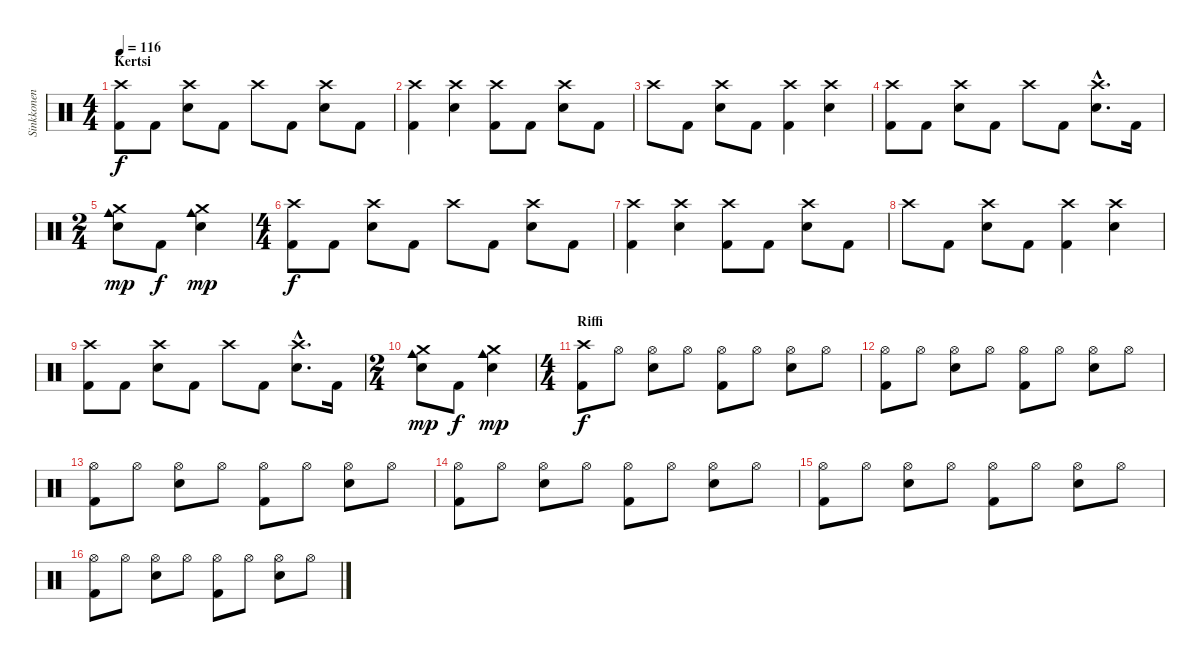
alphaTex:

\track ("Sinkkonen" "Sinkkonen") {instrument percussion}
\staff {score}
\articulation defaults
\ts (4 4)
\section ("" "Kertsi")
\tempo 116
\clef neutral
\ks c
("Kick (hit) 2" "Crash high (hit)").8{dy f} "Kick (hit) 2".8 ("Crash high (hit)" "Snare (hit) 2").8 "Kick (hit) 2".8 "Crash high (hit)".8 "Kick (hit) 2".8 ("Crash high (hit)" "Snare (hit) 2").8 "Kick (hit) 2".8 |
("Kick (hit) 2" "Crash high (hit)").4 ("Crash high (hit)" "Snare (hit) 2").4 ("Kick (hit) 2" "Crash high (hit)").8 "Kick (hit) 2".8 ("Crash high (hit)" "Snare (hit) 2").8 "Kick (hit) 2".8 |
"Crash high (hit)".8 "Kick (hit) 2".8 ("Crash high (hit)" "Snare (hit) 2").8 "Kick (hit) 2".8 ("Kick (hit) 2" "Crash high (hit)").4 ("Crash high (hit)" "Snare (hit) 2").4 |
("Kick (hit) 2" "Crash high (hit)").8 "Kick (hit) 2".8 ("Crash high (hit)" "Snare (hit) 2").8 "Kick (hit) 2".8 "Crash high (hit)".8 "Kick (hit) 2".8 ("Crash high (hit)"{hac} "Snare (hit) 2"{hac}).8{d} "Kick (hit) 2".16 |
\ts (2 4)
("Crash medium (hit)" "Snare (hit) 2" "Cowbell medium (hit)").8{dy mp} "Kick (hit) 2".8{dy f} ("Crash medium (hit)" "Snare (hit) 2" "Cowbell medium (hit)").4{dy mp} |
\ts (4 4)
("Kick (hit) 2" "Crash high (hit)").8{dy f} "Kick (hit) 2".8 ("Crash high (hit)" "Snare (hit) 2").8 "Kick (hit) 2".8 "Crash high (hit)".8 "Kick (hit) 2".8 ("Crash high (hit)" "Snare (hit) 2").8 "Kick (hit) 2".8 |
("Kick (hit) 2" "Crash high (hit)").4 ("Crash high (hit)" "Snare (hit) 2").4 ("Kick (hit) 2" "Crash high (hit)").8 "Kick (hit) 2".8 ("Crash high (hit)" "Snare (hit) 2").8 "Kick (hit) 2".8 |
"Crash high (hit)".8 "Kick (hit) 2".8 ("Crash high (hit)" "Snare (hit) 2").8 "Kick (hit) 2".8 ("Kick (hit) 2" "Crash high (hit)").4 ("Crash high (hit)" "Snare (hit) 2").4 |
("Kick (hit) 2" "Crash high (hit)").8 "Kick (hit) 2".8 ("Crash high (hit)" "Snare (hit) 2").8 "Kick (hit) 2".8 "Crash high (hit)".8 "Kick (hit) 2".8 ("Crash high (hit)"{hac} "Snare (hit) 2"{hac}).8{d} "Kick (hit) 2".16 |
\ts (2 4)
("Crash medium (hit)" "Snare (hit) 2" "Cowbell medium (hit)").8{dy mp} "Kick (hit) 2".8{dy f} ("Crash medium (hit)" "Snare (hit) 2" "Cowbell medium (hit)").4{dy mp} |
\ts (4 4)
\section ("" "Riffi")
("Kick (hit) 2" "Crash high (hit)").8{dy f} "Hi-Hat (open)".8 ("Hi-Hat (open)" "Snare (hit) 2").8 "Hi-Hat (open)".8 ("Kick (hit) 2" "Hi-Hat (open)").8 "Hi-Hat (open)".8 ("Hi-Hat (open)" "Snare (hit) 2").8 "Hi-Hat (open)".8 |
("Kick (hit) 2" "Hi-Hat (open)").8 "Hi-Hat (open)".8 ("Hi-Hat (open)" "Snare (hit) 2").8 "Hi-Hat (open)".8 ("Kick (hit) 2" "Hi-Hat (open)").8 "Hi-Hat (open)".8 ("Hi-Hat (open)" "Snare (hit) 2").8 "Hi-Hat (open)".8 |
("Kick (hit) 2" "Hi-Hat (open)").8 "Hi-Hat (open)".8 ("Hi-Hat (open)" "Snare (hit) 2").8 "Hi-Hat (open)".8 ("Kick (hit) 2" "Hi-Hat (open)").8 "Hi-Hat (open)".8 ("Hi-Hat (open)" "Snare (hit) 2").8 "Hi-Hat (open)".8 |
("Kick (hit) 2" "Hi-Hat (open)").8 "Hi-Hat (open)".8 ("Hi-Hat (open)" "Snare (hit) 2").8 "Hi-Hat (open)".8 ("Kick (hit) 2" "Hi-Hat (open)").8 "Hi-Hat (open)".8 ("Hi-Hat (open)" "Snare (hit) 2").8 "Hi-Hat (open)".8 |
("Kick (hit) 2" "Hi-Hat (open)").8 "Hi-Hat (open)".8 ("Hi-Hat (open)" "Snare (hit) 2").8 "Hi-Hat (open)".8 ("Kick (hit) 2" "Hi-Hat (open)").8 "Hi-Hat (open)".8 ("Hi-Hat (open)" "Snare (hit) 2").8 "Hi-Hat (open)".8 |
("Kick (hit) 2" "Hi-Hat (open)").8 "Hi-Hat (open)".8 ("Hi-Hat (open)" "Snare (hit) 2").8 "Hi-Hat (open)".8 ("Kick (hit) 2" "Hi-Hat (open)").8 "Hi-Hat (open)".8 ("Hi-Hat (open)" "Snare (hit) 2").8 "Hi-Hat (open)".8
